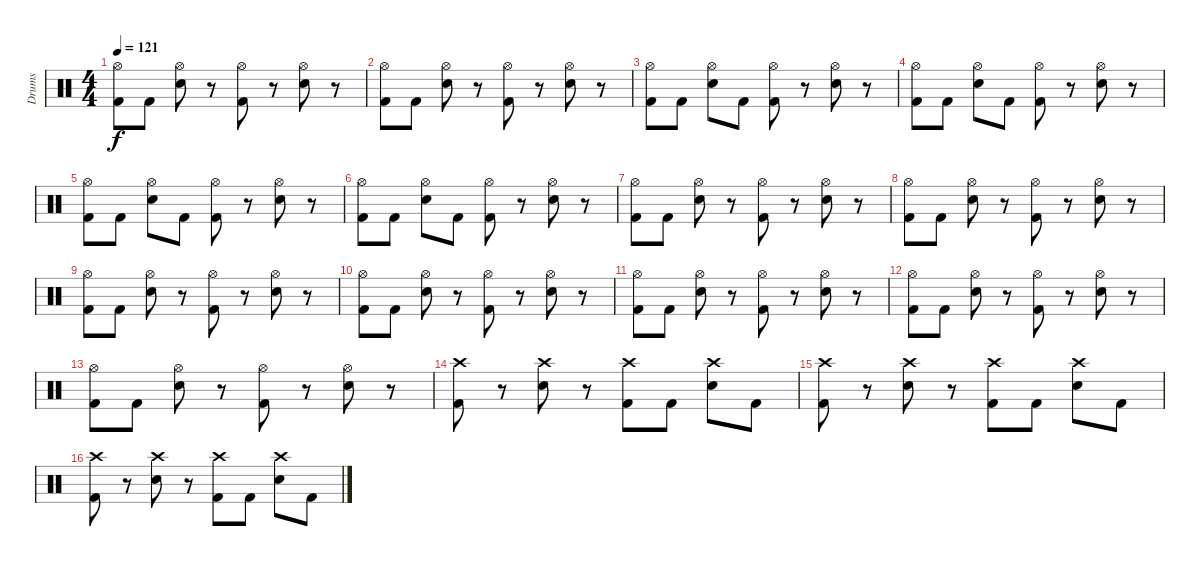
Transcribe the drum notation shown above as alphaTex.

\track ("Drums" "Drums") {instrument percussion}
\staff {score}
\articulation defaults
\ts (4 4)
\tempo 121
\clef neutral
\ks c
("Hi-Hat (open)" "Kick (hit) 2").8{dy f} "Kick (hit) 2".8 ("Hi-Hat (open)" "Electric Snare (hit)").8 r.8 ("Hi-Hat (open)" "Kick (hit) 2").8 r.8 ("Hi-Hat (open)" "Electric Snare (hit)").8 r.8 |
("Hi-Hat (open)" "Kick (hit) 2").8 "Kick (hit) 2".8 ("Hi-Hat (open)" "Electric Snare (hit)").8 r.8 ("Hi-Hat (open)" "Kick (hit) 2").8 r.8 ("Hi-Hat (open)" "Electric Snare (hit)").8 r.8 |
("Hi-Hat (open)" "Kick (hit) 2").8 "Kick (hit) 2".8 ("Hi-Hat (open)" "Electric Snare (hit)").8 "Kick (hit) 2".8 ("Hi-Hat (open)" "Kick (hit) 2").8 r.8 ("Hi-Hat (open)" "Electric Snare (hit)").8 r.8 |
("Hi-Hat (open)" "Kick (hit) 2").8 "Kick (hit) 2".8 ("Hi-Hat (open)" "Electric Snare (hit)").8 "Kick (hit) 2".8 ("Hi-Hat (open)" "Kick (hit) 2").8 r.8 ("Hi-Hat (open)" "Electric Snare (hit)").8 r.8 |
("Hi-Hat (open)" "Kick (hit) 2").8 "Kick (hit) 2".8 ("Hi-Hat (open)" "Electric Snare (hit)").8 "Kick (hit) 2".8 ("Hi-Hat (open)" "Kick (hit) 2").8 r.8 ("Hi-Hat (open)" "Electric Snare (hit)").8 r.8 |
("Hi-Hat (open)" "Kick (hit) 2").8 "Kick (hit) 2".8 ("Hi-Hat (open)" "Electric Snare (hit)").8 "Kick (hit) 2".8 ("Hi-Hat (open)" "Kick (hit) 2").8 r.8 ("Hi-Hat (open)" "Electric Snare (hit)").8 r.8 |
("Hi-Hat (open)" "Kick (hit) 2").8 "Kick (hit) 2".8 ("Hi-Hat (open)" "Electric Snare (hit)").8 r.8 ("Hi-Hat (open)" "Kick (hit) 2").8 r.8 ("Hi-Hat (open)" "Electric Snare (hit)").8 r.8 |
("Hi-Hat (open)" "Kick (hit) 2").8 "Kick (hit) 2".8 ("Hi-Hat (open)" "Electric Snare (hit)").8 r.8 ("Hi-Hat (open)" "Kick (hit) 2").8 r.8 ("Hi-Hat (open)" "Electric Snare (hit)").8 r.8 |
("Hi-Hat (open)" "Kick (hit) 2").8 "Kick (hit) 2".8 ("Hi-Hat (open)" "Electric Snare (hit)").8 r.8 ("Hi-Hat (open)" "Kick (hit) 2").8 r.8 ("Hi-Hat (open)" "Electric Snare (hit)").8 r.8 |
("Hi-Hat (open)" "Kick (hit) 2").8 "Kick (hit) 2".8 ("Hi-Hat (open)" "Electric Snare (hit)").8 r.8 ("Hi-Hat (open)" "Kick (hit) 2").8 r.8 ("Hi-Hat (open)" "Electric Snare (hit)").8 r.8 |
("Hi-Hat (open)" "Kick (hit) 2").8 "Kick (hit) 2".8 ("Hi-Hat (open)" "Electric Snare (hit)").8 r.8 ("Hi-Hat (open)" "Kick (hit) 2").8 r.8 ("Hi-Hat (open)" "Electric Snare (hit)").8 r.8 |
("Hi-Hat (open)" "Kick (hit) 2").8 "Kick (hit) 2".8 ("Hi-Hat (open)" "Electric Snare (hit)").8 r.8 ("Hi-Hat (open)" "Kick (hit) 2").8 r.8 ("Hi-Hat (open)" "Electric Snare (hit)").8 r.8 |
("Hi-Hat (open)" "Kick (hit) 2").8 "Kick (hit) 2".8 ("Hi-Hat (open)" "Electric Snare (hit)").8 r.8 ("Hi-Hat (open)" "Kick (hit) 2").8 r.8 ("Hi-Hat (open)" "Electric Snare (hit)").8 r.8 |
("Crash high (hit)" "Kick (hit) 2").8 r.8 ("Crash high (hit)" "Electric Snare (hit)").8 r.8 ("Crash high (hit)" "Kick (hit) 2").8 "Kick (hit) 2".8 ("Crash high (hit)" "Electric Snare (hit)").8 "Kick (hit) 2".8 |
("Crash high (hit)" "Kick (hit) 2").8 r.8 ("Crash high (hit)" "Electric Snare (hit)").8 r.8 ("Crash high (hit)" "Kick (hit) 2").8 "Kick (hit) 2".8 ("Crash high (hit)" "Electric Snare (hit)").8 "Kick (hit) 2".8 |
("Crash high (hit)" "Kick (hit) 2").8 r.8 ("Crash high (hit)" "Electric Snare (hit)").8 r.8 ("Crash high (hit)" "Kick (hit) 2").8 "Kick (hit) 2".8 ("Crash high (hit)" "Electric Snare (hit)").8 "Kick (hit) 2".8
